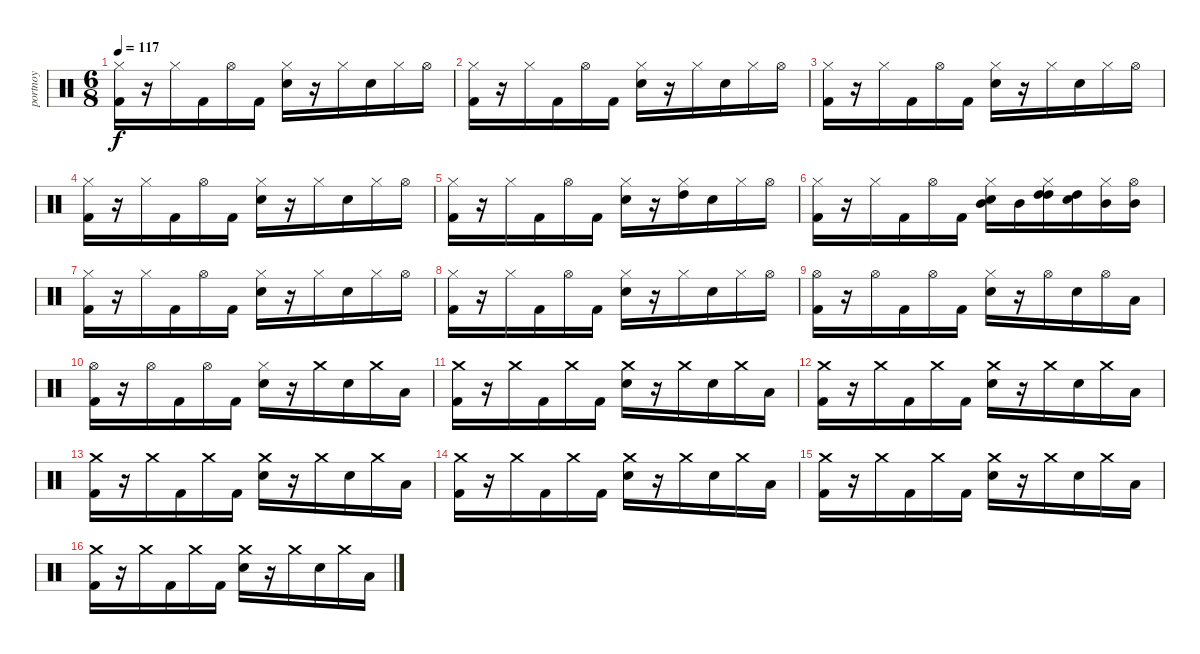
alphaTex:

\track ("portnoy" "portnoy") {instrument percussion}
\staff {score}
\articulation defaults
\ts (6 8)
\tempo 117
\clef neutral
\ks c
("Hi-Hat (closed)" "Kick (hit) 2").16{dy f} r.16 "Hi-Hat (closed)".16 "Kick (hit) 2".16 "Hi-Hat (open)".16 "Kick (hit) 2".16 ("Hi-Hat (closed)" "Electric Snare (hit)").16 r.16 "Hi-Hat (closed)".16 "Electric Snare (hit)".16 "Hi-Hat (closed)".16 "Hi-Hat (open)".16 |
("Hi-Hat (closed)" "Kick (hit) 2").16 r.16 "Hi-Hat (closed)".16 "Kick (hit) 2".16 "Hi-Hat (open)".16 "Kick (hit) 2".16 ("Hi-Hat (closed)" "Electric Snare (hit)").16 r.16 "Hi-Hat (closed)".16 "Electric Snare (hit)".16 "Hi-Hat (closed)".16 "Hi-Hat (open)".16 |
("Hi-Hat (closed)" "Kick (hit) 2").16 r.16 "Hi-Hat (closed)".16 "Kick (hit) 2".16 "Hi-Hat (open)".16 "Kick (hit) 2".16 ("Hi-Hat (closed)" "Electric Snare (hit)").16 r.16 "Hi-Hat (closed)".16 "Electric Snare (hit)".16 "Hi-Hat (closed)".16 "Hi-Hat (open)".16 |
("Hi-Hat (closed)" "Kick (hit) 2").16 r.16 "Hi-Hat (closed)".16 "Kick (hit) 2".16 "Hi-Hat (open)".16 "Kick (hit) 2".16 ("Hi-Hat (closed)" "Electric Snare (hit)").16 r.16 "Hi-Hat (closed)".16 "Electric Snare (hit)".16 "Hi-Hat (closed)".16 "Hi-Hat (open)".16 |
("Hi-Hat (closed)" "Kick (hit) 2").16 r.16 "Hi-Hat (closed)".16 "Kick (hit) 2".16 "Hi-Hat (open)".16 "Kick (hit) 2".16 ("Hi-Hat (closed)" "Electric Snare (hit)").16 r.16 ("High Tom (hit)" "Hi-Hat (closed)").16 "Electric Snare (hit)".16 "Hi-Hat (closed)".16 "Hi-Hat (open)".16 |
("Hi-Hat (closed)" "Kick (hit) 2").16 r.16 "Hi-Hat (closed)".16 "Kick (hit) 2".16 "Hi-Hat (open)".16 "Kick (hit) 2".16 ("Mid Tom (hit)" "Hi-Hat (closed)" "Electric Snare (hit)").16 "Mid Tom (hit)".16 ("High Tom (hit)" "High Tom (hit)" "Hi-Hat (closed)").16 ("High Tom (hit)" "Electric Snare (hit)").16 ("Mid Tom (hit)" "Hi-Hat (closed)").16 ("Mid Tom (hit)" "Hi-Hat (open)").16 |
("Hi-Hat (closed)" "Kick (hit) 2").16 r.16 "Hi-Hat (closed)".16 "Kick (hit) 2".16 "Hi-Hat (open)".16 "Kick (hit) 2".16 ("Hi-Hat (closed)" "Electric Snare (hit)").16 r.16 "Hi-Hat (closed)".16 "Electric Snare (hit)".16 "Hi-Hat (closed)".16 "Hi-Hat (open)".16 |
("Hi-Hat (closed)" "Kick (hit) 2").16 r.16 "Hi-Hat (closed)".16 "Kick (hit) 2".16 "Hi-Hat (open)".16 "Kick (hit) 2".16 ("Hi-Hat (closed)" "Electric Snare (hit)").16 r.16 "Hi-Hat (closed)".16 "Electric Snare (hit)".16 "Hi-Hat (closed)".16 "Hi-Hat (open)".16 |
("Hi-Hat (open)" "Kick (hit) 2").16 r.16 "Hi-Hat (open)".16 "Kick (hit) 2".16 "Hi-Hat (open)".16 "Kick (hit) 2".16 ("Hi-Hat (closed)" "Electric Snare (hit)").16 r.16 "Hi-Hat (open)".16 "Electric Snare (hit)".16 "Hi-Hat (open)".16 "Low Tom (hit)".16 |
("Hi-Hat (open)" "Kick (hit) 2").16 r.16 "Hi-Hat (open)".16 "Kick (hit) 2".16 "Hi-Hat (open)".16 "Kick (hit) 2".16 ("Hi-Hat (closed)" "Electric Snare (hit)").16 r.16 "Crash medium (hit)".16 "Electric Snare (hit)".16 "Crash medium (hit)".16 "Low Tom (hit)".16 |
("Crash medium (hit)" "Kick (hit) 2").16 r.16 "Crash medium (hit)".16 "Kick (hit) 2".16 "Crash medium (hit)".16 "Kick (hit) 2".16 ("Crash medium (hit)" "Electric Snare (hit)").16 r.16 "Crash medium (hit)".16 "Electric Snare (hit)".16 "Crash medium (hit)".16 "Low Tom (hit)".16 |
("Crash medium (hit)" "Kick (hit) 2").16 r.16 "Crash medium (hit)".16 "Kick (hit) 2".16 "Crash medium (hit)".16 "Kick (hit) 2".16 ("Crash medium (hit)" "Electric Snare (hit)").16 r.16 "Crash medium (hit)".16 "Electric Snare (hit)".16 "Crash medium (hit)".16 "Low Tom (hit)".16 |
("Crash medium (hit)" "Kick (hit) 2").16 r.16 "Crash medium (hit)".16 "Kick (hit) 2".16 "Crash medium (hit)".16 "Kick (hit) 2".16 ("Crash medium (hit)" "Electric Snare (hit)").16 r.16 "Crash medium (hit)".16 "Electric Snare (hit)".16 "Crash medium (hit)".16 "Low Tom (hit)".16 |
("Crash medium (hit)" "Kick (hit) 2").16 r.16 "Crash medium (hit)".16 "Kick (hit) 2".16 "Crash medium (hit)".16 "Kick (hit) 2".16 ("Crash medium (hit)" "Electric Snare (hit)").16 r.16 "Crash medium (hit)".16 "Electric Snare (hit)".16 "Crash medium (hit)".16 "Low Tom (hit)".16 |
("Crash medium (hit)" "Kick (hit) 2").16 r.16 "Crash medium (hit)".16 "Kick (hit) 2".16 "Crash medium (hit)".16 "Kick (hit) 2".16 ("Crash medium (hit)" "Electric Snare (hit)").16 r.16 "Crash medium (hit)".16 "Electric Snare (hit)".16 "Crash medium (hit)".16 "Low Tom (hit)".16 |
("Crash medium (hit)" "Kick (hit) 2").16 r.16 "Crash medium (hit)".16 "Kick (hit) 2".16 "Crash medium (hit)".16 "Kick (hit) 2".16 ("Crash medium (hit)" "Electric Snare (hit)").16 r.16 "Crash medium (hit)".16 "Electric Snare (hit)".16 "Crash medium (hit)".16 "Low Tom (hit)".16
